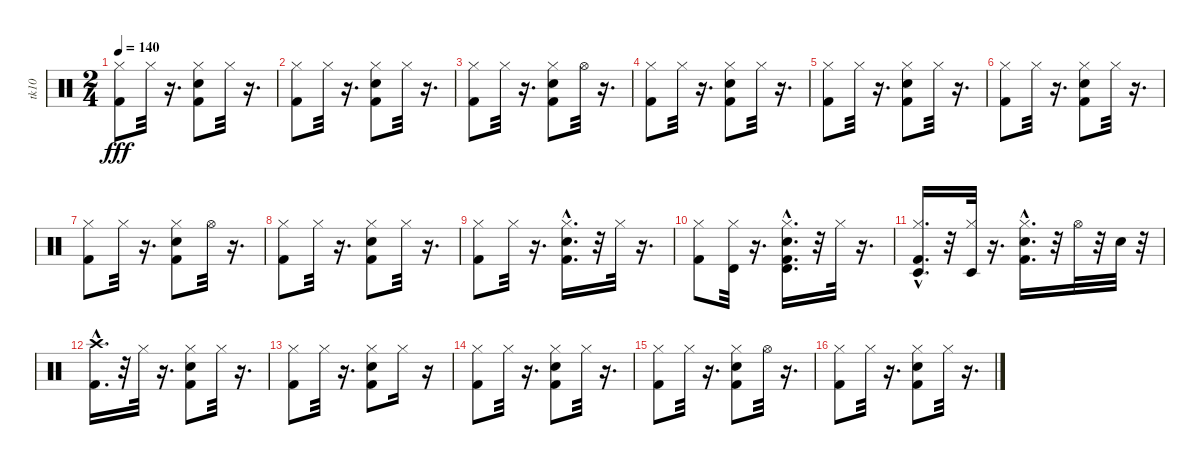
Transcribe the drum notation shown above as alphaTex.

\track ("tk10" "tk10") {instrument percussion}
\staff {score}
\articulation defaults
\ts (2 4)
\tempo 140
\clef neutral
\ks c
("Kick (hit) 2" "Hi-Hat (closed)").8{dy fff} "Hi-Hat (closed)".32 r.16{d} ("Snare (hit) 2" "Kick (hit) 2" "Hi-Hat (closed)").8 "Hi-Hat (closed)".32 r.16{d} |
("Kick (hit) 2" "Hi-Hat (closed)").8 "Hi-Hat (closed)".32 r.16{d} ("Snare (hit) 2" "Kick (hit) 2" "Hi-Hat (closed)").8 "Hi-Hat (closed)".32 r.16{d} |
("Kick (hit) 2" "Hi-Hat (closed)").8 "Hi-Hat (closed)".32 r.16{d} ("Kick (hit) 2" "Snare (hit) 2" "Hi-Hat (closed)").8 "Hi-Hat (open)".32 r.16{d} |
("Kick (hit) 2" "Hi-Hat (closed)").8 "Hi-Hat (closed)".32 r.16{d} ("Snare (hit) 2" "Kick (hit) 2" "Hi-Hat (closed)").8 "Hi-Hat (closed)".32 r.16{d} |
("Kick (hit) 2" "Hi-Hat (closed)").8 "Hi-Hat (closed)".32 r.16{d} ("Snare (hit) 2" "Kick (hit) 2" "Hi-Hat (closed)").8 "Hi-Hat (closed)".32 r.16{d} |
("Kick (hit) 2" "Hi-Hat (closed)").8 "Hi-Hat (closed)".32 r.16{d} ("Snare (hit) 2" "Kick (hit) 2" "Hi-Hat (closed)").8 "Hi-Hat (closed)".32 r.16{d} |
("Kick (hit) 2" "Hi-Hat (closed)").8 "Hi-Hat (closed)".32 r.16{d} ("Snare (hit) 2" "Kick (hit) 2" "Hi-Hat (closed)").8 "Hi-Hat (open)".32 r.16{d} |
("Kick (hit) 2" "Hi-Hat (closed)").8 "Hi-Hat (closed)".32 r.16{d} ("Snare (hit) 2" "Kick (hit) 2" "Hi-Hat (closed)").8 "Hi-Hat (closed)".32 r.16{d} |
("Kick (hit) 2" "Hi-Hat (closed)").8 "Hi-Hat (closed)".32 r.16{d} ("Snare (hit) 2"{hac} "Kick (hit) 2"{hac} "Hi-Hat (closed)").16{d} r.32 "Hi-Hat (closed)".32 r.16{d} |
("Kick (hit) 2" "Hi-Hat (closed)").8 ("Timbale high (hit)" "Hi-Hat (closed)").32 r.16{d} ("Kick (hit) 2"{hac} "Hi-Hat (closed)" "Timbale high (hit)" "Snare (hit) 2"{hac}).16{d} r.32 "Hi-Hat (closed)".32 r.16{d} |
("Hi-Hat (closed)" "Kick (hit) 2"{hac} "Timbale low (hit)").16{d} r.32 ("Timbale low (hit)" "Hi-Hat (closed)").32 r.16{d} ("Hi-Hat (closed)" "Snare (hit) 2"{hac} "Kick (hit) 2"{hac}).16{d} r.32 "Hi-Hat (open)".32 r.32 "Snare (hit) 2".32 r.32 |
("Kick (hit) 2"{hac} "Crash high (hit)").16{d} r.32 "Hi-Hat (closed)".32 r.16{d} ("Kick (hit) 2" "Snare (hit) 2" "Hi-Hat (closed)").8 "Hi-Hat (closed)".32 r.16{d} |
("Kick (hit) 2" "Hi-Hat (closed)").8 "Hi-Hat (closed)".32 r.16{d} ("Hi-Hat (closed)" "Snare (hit) 2" "Kick (hit) 2").8 "Hi-Hat (closed)".16 r.16 |
("Kick (hit) 2" "Hi-Hat (closed)").8 "Hi-Hat (closed)".32 r.16{d} ("Snare (hit) 2" "Kick (hit) 2" "Hi-Hat (closed)").8 "Hi-Hat (closed)".32 r.16{d} |
("Kick (hit) 2" "Hi-Hat (closed)").8 "Hi-Hat (closed)".32 r.16{d} ("Kick (hit) 2" "Snare (hit) 2" "Hi-Hat (closed)").8 "Hi-Hat (open)".32 r.16{d} |
("Kick (hit) 2" "Hi-Hat (closed)").8 "Hi-Hat (closed)".32 r.16{d} ("Kick (hit) 2" "Hi-Hat (closed)" "Snare (hit) 2").8 "Hi-Hat (closed)".32 r.16{d}
